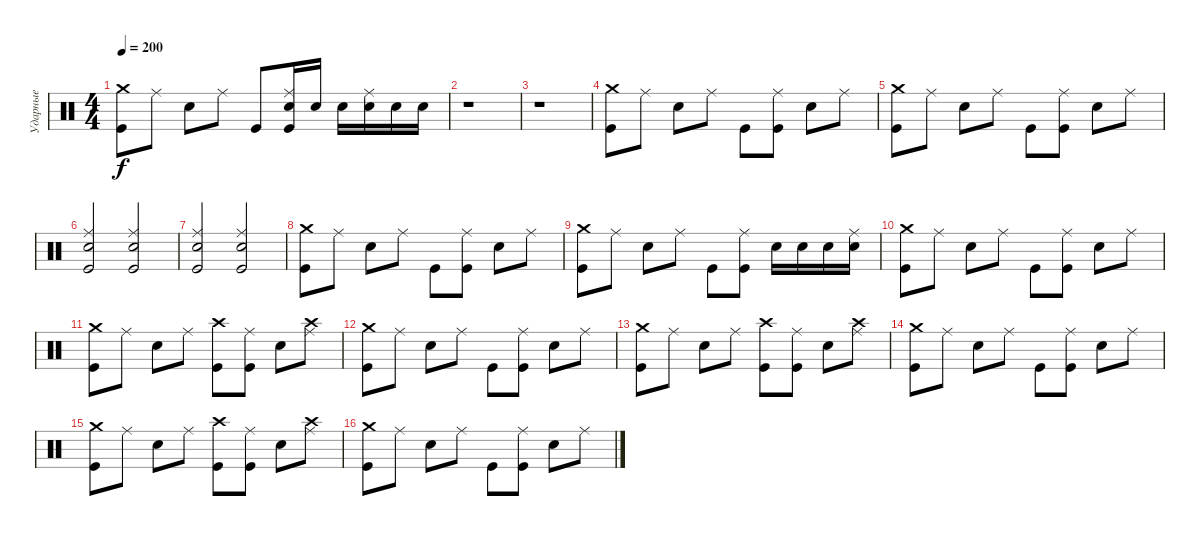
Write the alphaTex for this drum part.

\track ("Ударные" "Ударные") {instrument percussion}
\staff {score}
\articulation defaults
\ts (4 4)
\tempo 200
\clef neutral
\ks c
("Crash medium (hit)" "Kick (hit)").8{dy f} "Ride (middle)".8 "Electric Snare (hit)".8 "Ride (middle)".8 "Kick (hit)".8 ("Ride (middle)" "Electric Snare (hit)" "Kick (hit)").16 "Electric Snare (hit)".16 "Electric Snare (hit)".16 ("Ride (middle)" "Electric Snare (hit)").16 "Electric Snare (hit)".16 "Electric Snare (hit)".16 |
r.1 |
r.1 |
("Crash medium (hit)" "Kick (hit)").8 "Ride (middle)".8 "Electric Snare (hit)".8 "Ride (middle)".8 "Kick (hit)".8 ("Ride (middle)" "Kick (hit)").8 "Electric Snare (hit)".8 "Ride (middle)".8 |
("Crash medium (hit)" "Kick (hit)").8 "Ride (middle)".8 "Electric Snare (hit)".8 "Ride (middle)".8 "Kick (hit)".8 ("Ride (middle)" "Kick (hit)").8 "Electric Snare (hit)".8 "Ride (middle)".8 |
("Ride (middle)" "Electric Snare (hit)" "Kick (hit)").2 ("Ride (middle)" "Electric Snare (hit)" "Kick (hit)").2 |
("Ride (middle)" "Electric Snare (hit)" "Kick (hit)").2 ("Ride (middle)" "Electric Snare (hit)" "Kick (hit)").2 |
("Crash medium (hit)" "Kick (hit)").8 "Ride (middle)".8 "Electric Snare (hit)".8 "Ride (middle)".8 "Kick (hit)".8 ("Ride (middle)" "Kick (hit)").8 "Electric Snare (hit)".8 "Ride (middle)".8 |
("Crash medium (hit)" "Kick (hit)").8 "Ride (middle)".8 "Electric Snare (hit)".8 "Ride (middle)".8 "Kick (hit)".8 ("Ride (middle)" "Kick (hit)").8 "Electric Snare (hit)".16 "Electric Snare (hit)".16 "Electric Snare (hit)".16 ("Ride (middle)" "Electric Snare (hit)").16 |
("Crash medium (hit)" "Kick (hit)").8 "Ride (middle)".8 "Electric Snare (hit)".8 "Ride (middle)".8 "Kick (hit)".8 ("Ride (middle)" "Kick (hit)").8 "Electric Snare (hit)".8 "Ride (middle)".8 |
("Crash medium (hit)" "Kick (hit)").8 "Ride (middle)".8 "Electric Snare (hit)".8 "Ride (middle)".8 ("Crash high (hit)" "Kick (hit)").8 ("Ride (middle)" "Kick (hit)").8 "Electric Snare (hit)".8 ("Crash high (hit)" "Ride (middle)").8 |
("Crash medium (hit)" "Kick (hit)").8 "Ride (middle)".8 "Electric Snare (hit)".8 "Ride (middle)".8 "Kick (hit)".8 ("Ride (middle)" "Kick (hit)").8 "Electric Snare (hit)".8 "Ride (middle)".8 |
("Crash medium (hit)" "Kick (hit)").8 "Ride (middle)".8 "Electric Snare (hit)".8 "Ride (middle)".8 ("Crash high (hit)" "Kick (hit)").8 ("Ride (middle)" "Kick (hit)").8 "Electric Snare (hit)".8 ("Crash high (hit)" "Ride (middle)").8 |
("Crash medium (hit)" "Kick (hit)").8 "Ride (middle)".8 "Electric Snare (hit)".8 "Ride (middle)".8 "Kick (hit)".8 ("Ride (middle)" "Kick (hit)").8 "Electric Snare (hit)".8 "Ride (middle)".8 |
("Crash medium (hit)" "Kick (hit)").8 "Ride (middle)".8 "Electric Snare (hit)".8 "Ride (middle)".8 ("Crash high (hit)" "Kick (hit)").8 ("Ride (middle)" "Kick (hit)").8 "Electric Snare (hit)".8 ("Crash high (hit)" "Ride (middle)").8 |
("Crash medium (hit)" "Kick (hit)").8 "Ride (middle)".8 "Electric Snare (hit)".8 "Ride (middle)".8 "Kick (hit)".8 ("Ride (middle)" "Kick (hit)").8 "Electric Snare (hit)".8 "Ride (middle)".8
